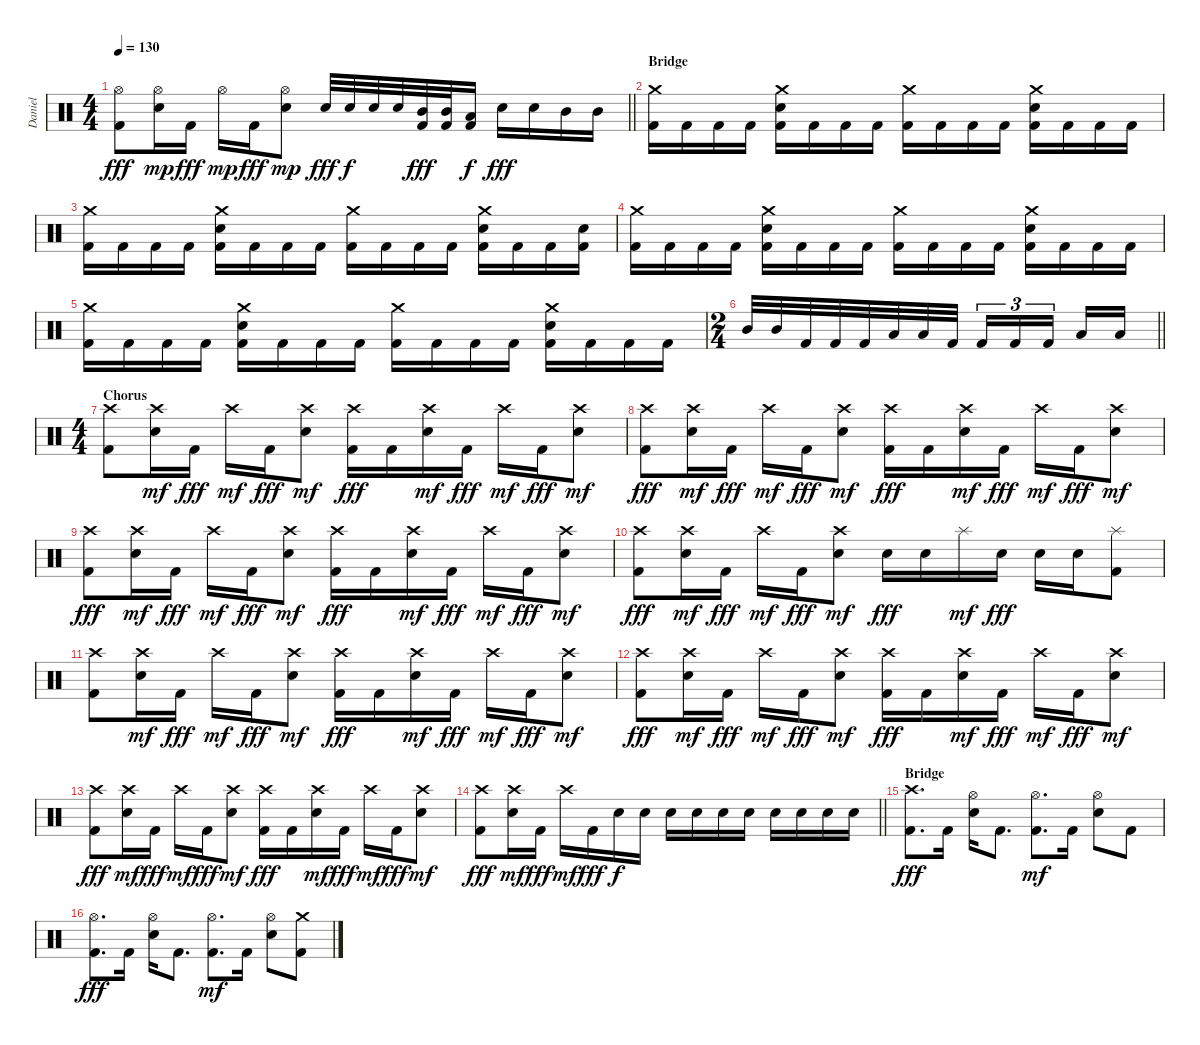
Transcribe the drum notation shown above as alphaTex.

\track ("Daniel" "Daniel") {instrument percussion}
\staff {score}
\articulation defaults
\ts (4 4)
\tempo 130
\clef neutral
\barLineRight lightlight
\ks c
("Hi-Hat (open)" "Kick (hit) 2").8{dy fff} ("Hi-Hat (open)" "Electric Snare (hit)").16{dy mp} "Kick (hit) 2".16{dy fff} "Hi-Hat (open)".16{dy mp} "Kick (hit) 2".16{dy fff} ("Hi-Hat (open)" "Electric Snare (hit)").8{dy mp} "Electric Snare (hit)".32{dy fff} "Electric Snare (hit)".32{dy f} "Electric Snare (hit)".32 "Electric Snare (hit)".32 ("Mid Tom (hit)" "Kick (hit) 2").32{dy fff} ("Mid Tom (hit)" "Kick (hit) 2").32 ("Low Tom (hit)" "Kick (hit) 2").16{dy f} "Electric Snare (hit)".16{dy fff} "Electric Snare (hit)".16 "Mid Tom (hit)".16 "Mid Tom (hit)".16 |
\section ("" "Bridge")
("Crash medium (hit)" "Kick (hit) 2").16 "Kick (hit) 2".16 "Kick (hit) 2".16 "Kick (hit) 2".16 ("Crash medium (hit)" "Electric Snare (hit)" "Kick (hit) 2").16 "Kick (hit) 2".16 "Kick (hit) 2".16 "Kick (hit) 2".16 ("Crash medium (hit)" "Kick (hit) 2").16 "Kick (hit) 2".16 "Kick (hit) 2".16 "Kick (hit) 2".16 ("Crash medium (hit)" "Electric Snare (hit)" "Kick (hit) 2").16 "Kick (hit) 2".16 "Kick (hit) 2".16 "Kick (hit) 2".16 |
("Crash medium (hit)" "Kick (hit) 2").16 "Kick (hit) 2".16 "Kick (hit) 2".16 "Kick (hit) 2".16 ("Crash medium (hit)" "Electric Snare (hit)" "Kick (hit) 2").16 "Kick (hit) 2".16 "Kick (hit) 2".16 "Kick (hit) 2".16 ("Crash medium (hit)" "Kick (hit) 2").16 "Kick (hit) 2".16 "Kick (hit) 2".16 "Kick (hit) 2".16 ("Crash medium (hit)" "Electric Snare (hit)" "Kick (hit) 2").16 "Kick (hit) 2".16 "Kick (hit) 2".16 ("Electric Snare (hit)" "Kick (hit) 2").16 |
("Crash medium (hit)" "Kick (hit) 2").16 "Kick (hit) 2".16 "Kick (hit) 2".16 "Kick (hit) 2".16 ("Crash medium (hit)" "Electric Snare (hit)" "Kick (hit) 2").16 "Kick (hit) 2".16 "Kick (hit) 2".16 "Kick (hit) 2".16 ("Crash medium (hit)" "Kick (hit) 2").16 "Kick (hit) 2".16 "Kick (hit) 2".16 "Kick (hit) 2".16 ("Crash medium (hit)" "Electric Snare (hit)" "Kick (hit) 2").16 "Kick (hit) 2".16 "Kick (hit) 2".16 "Kick (hit) 2".16 |
("Crash medium (hit)" "Kick (hit) 2").16 "Kick (hit) 2".16 "Kick (hit) 2".16 "Kick (hit) 2".16 ("Crash medium (hit)" "Electric Snare (hit)" "Kick (hit) 2").16 "Kick (hit) 2".16 "Kick (hit) 2".16 "Kick (hit) 2".16 ("Crash medium (hit)" "Kick (hit) 2").16 "Kick (hit) 2".16 "Kick (hit) 2".16 "Kick (hit) 2".16 ("Crash medium (hit)" "Electric Snare (hit)" "Kick (hit) 2").16 "Kick (hit) 2".16 "Kick (hit) 2".16 "Kick (hit) 2".16 |
\ts (2 4)
\barLineRight lightlight "Mid Tom (hit)".32 "Mid Tom (hit)".32 "Kick (hit) 2".32 "Kick (hit) 2".32 "Kick (hit) 2".32 "Low Tom (hit)".32 "Low Tom (hit)".32 "Kick (hit) 2".32 "Kick (hit) 2".16{tu (3 2)} "Kick (hit) 2".16{tu (3 2)} "Kick (hit) 2".16{tu (3 2) beam splitsecondary} "Low Floor Tom (hit)".16 "Low Floor Tom (hit)".16
|
\ts (4 4)
\section ("" "Chorus")
("Crash high (hit)" "Kick (hit) 2").8 ("Crash high (hit)" "Electric Snare (hit)").16{dy mf} "Kick (hit) 2".16{dy fff} "Crash high (hit)".16{dy mf} "Kick (hit) 2".16{dy fff} ("Crash high (hit)" "Electric Snare (hit)").8{dy mf} ("Crash high (hit)" "Kick (hit) 2").16{dy fff} "Kick (hit) 2".16 ("Crash high (hit)" "Electric Snare (hit)").16{dy mf} "Kick (hit) 2".16{dy fff} "Crash high (hit)".16{dy mf} "Kick (hit) 2".16{dy fff} ("Crash high (hit)" "Electric Snare (hit)").8{dy mf} |
("Crash high (hit)" "Kick (hit) 2").8{dy fff} ("Crash high (hit)" "Electric Snare (hit)").16{dy mf} "Kick (hit) 2".16{dy fff} "Crash high (hit)".16{dy mf} "Kick (hit) 2".16{dy fff} ("Crash high (hit)" "Electric Snare (hit)").8{dy mf} ("Crash high (hit)" "Kick (hit) 2").16{dy fff} "Kick (hit) 2".16 ("Crash high (hit)" "Electric Snare (hit)").16{dy mf} "Kick (hit) 2".16{dy fff} "Crash high (hit)".16{dy mf} "Kick (hit) 2".16{dy fff} ("Crash high (hit)" "Electric Snare (hit)").8{dy mf} |
("Crash high (hit)" "Kick (hit) 2").8{dy fff} ("Crash high (hit)" "Electric Snare (hit)").16{dy mf} "Kick (hit) 2".16{dy fff} "Crash high (hit)".16{dy mf} "Kick (hit) 2".16{dy fff} ("Crash high (hit)" "Electric Snare (hit)").8{dy mf} ("Crash high (hit)" "Kick (hit) 2").16{dy fff} "Kick (hit) 2".16 ("Crash high (hit)" "Electric Snare (hit)").16{dy mf} "Kick (hit) 2".16{dy fff} "Crash high (hit)".16{dy mf} "Kick (hit) 2".16{dy fff} ("Crash high (hit)" "Electric Snare (hit)").8{dy mf} |
("Crash high (hit)" "Kick (hit) 2").8{dy fff} ("Crash high (hit)" "Electric Snare (hit)").16{dy mf} "Kick (hit) 2".16{dy fff} "Crash high (hit)".16{dy mf} "Kick (hit) 2".16{dy fff} ("Crash high (hit)" "Electric Snare (hit)").8{dy mf} "Electric Snare (hit)".16{dy fff} "Electric Snare (hit)".16 "Splash (hit)".16{dy mf} "Electric Snare (hit)".16{dy fff} "Electric Snare (hit)".16 "Electric Snare (hit)".16 ("Splash (hit)" "Kick (hit) 2").8 |
("Crash high (hit)" "Kick (hit) 2").8 ("Crash high (hit)" "Electric Snare (hit)").16{dy mf} "Kick (hit) 2".16{dy fff} "Crash high (hit)".16{dy mf} "Kick (hit) 2".16{dy fff} ("Crash high (hit)" "Electric Snare (hit)").8{dy mf} ("Crash high (hit)" "Kick (hit) 2").16{dy fff} "Kick (hit) 2".16 ("Crash high (hit)" "Electric Snare (hit)").16{dy mf} "Kick (hit) 2".16{dy fff} "Crash high (hit)".16{dy mf} "Kick (hit) 2".16{dy fff} ("Crash high (hit)" "Electric Snare (hit)").8{dy mf} |
("Crash high (hit)" "Kick (hit) 2").8{dy fff} ("Crash high (hit)" "Electric Snare (hit)").16{dy mf} "Kick (hit) 2".16{dy fff} "Crash high (hit)".16{dy mf} "Kick (hit) 2".16{dy fff} ("Crash high (hit)" "Electric Snare (hit)").8{dy mf} ("Crash high (hit)" "Kick (hit) 2").16{dy fff} "Kick (hit) 2".16 ("Crash high (hit)" "Electric Snare (hit)").16{dy mf} "Kick (hit) 2".16{dy fff} "Crash high (hit)".16{dy mf} "Kick (hit) 2".16{dy fff} ("Crash high (hit)" "Electric Snare (hit)").8{dy mf} |
("Crash high (hit)" "Kick (hit) 2").8{dy fff} ("Crash high (hit)" "Electric Snare (hit)").16{dy mf} "Kick (hit) 2".16{dy fff} "Crash high (hit)".16{dy mf} "Kick (hit) 2".16{dy fff} ("Crash high (hit)" "Electric Snare (hit)").8{dy mf} ("Crash high (hit)" "Kick (hit) 2").16{dy fff} "Kick (hit) 2".16 ("Crash high (hit)" "Electric Snare (hit)").16{dy mf} "Kick (hit) 2".16{dy fff} "Crash high (hit)".16{dy mf} "Kick (hit) 2".16{dy fff} ("Crash high (hit)" "Electric Snare (hit)").8{dy mf} |
\barLineRight lightlight
("Crash high (hit)" "Kick (hit) 2").8{dy fff} ("Crash high (hit)" "Electric Snare (hit)").16{dy mf} "Kick (hit) 2".16{dy fff} "Crash high (hit)".16{dy mf} "Kick (hit) 2".16{dy fff} "Electric Snare (hit)".16{dy f} "Electric Snare (hit)".16 "Electric Snare (hit)".16 "Electric Snare (hit)".16 "Electric Snare (hit)".16 "Electric Snare (hit)".16 "Electric Snare (hit)".16 "Electric Snare (hit)".16 "Electric Snare (hit)".16 "Electric Snare (hit)".16 |
\section ("" "Bridge")
("Crash high (hit)" "Kick (hit) 2").8{d dy fff} "Kick (hit) 2".16 ("Hi-Hat (open)" "Electric Snare (hit)").16 "Kick (hit) 2".8{d} ("Hi-Hat (open)" "Kick (hit) 2").8{d dy mf} "Kick (hit) 2".16 ("Hi-Hat (open)" "Electric Snare (hit)").8 "Kick (hit) 2".8 |
("Hi-Hat (open)" "Kick (hit) 2").8{d dy fff} "Kick (hit) 2".16 ("Hi-Hat (open)" "Electric Snare (hit)").16 "Kick (hit) 2".8{d} ("Hi-Hat (open)" "Kick (hit) 2").8{d dy mf} "Kick (hit) 2".16 ("Hi-Hat (open)" "Electric Snare (hit)").8 ("Crash medium (hit)" "Kick (hit) 2").8
